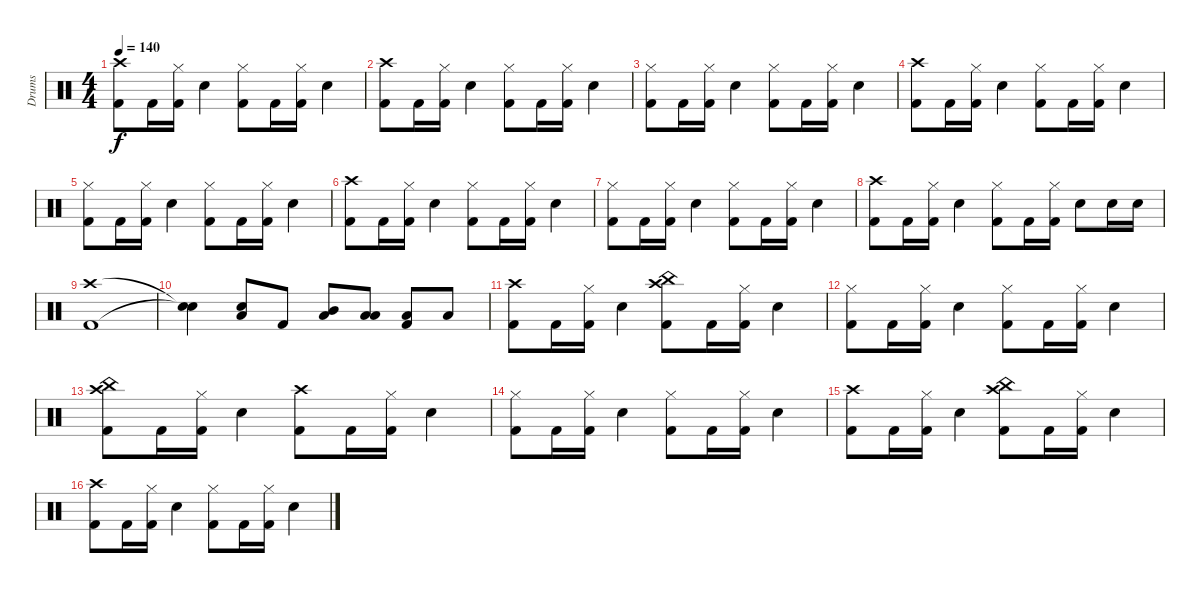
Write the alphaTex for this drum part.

\track ("Drums" "Drums") {instrument percussion}
\staff {score}
\articulation defaults
\ts (4 4)
\tempo 140
\clef neutral
\ks c
("Crash high (hit)" "Kick (hit) 2").8{dy f} "Kick (hit) 2".16 ("Hi-Hat (closed)" "Kick (hit) 2").16 "Electric Snare (hit)".4 ("Hi-Hat (closed)" "Kick (hit) 2").8 "Kick (hit) 2".16 ("Hi-Hat (closed)" "Kick (hit) 2").16 "Electric Snare (hit)".4 |
("Crash high (hit)" "Kick (hit) 2").8 "Kick (hit) 2".16 ("Hi-Hat (closed)" "Kick (hit) 2").16 "Electric Snare (hit)".4 ("Hi-Hat (closed)" "Kick (hit) 2").8 "Kick (hit) 2".16 ("Hi-Hat (closed)" "Kick (hit) 2").16 "Electric Snare (hit)".4 |
("Hi-Hat (closed)" "Kick (hit) 2").8 "Kick (hit) 2".16 ("Hi-Hat (closed)" "Kick (hit) 2").16 "Electric Snare (hit)".4 ("Hi-Hat (closed)" "Kick (hit) 2").8 "Kick (hit) 2".16 ("Hi-Hat (closed)" "Kick (hit) 2").16 "Electric Snare (hit)".4 |
("Crash high (hit)" "Kick (hit) 2").8 "Kick (hit) 2".16 ("Hi-Hat (closed)" "Kick (hit) 2").16 "Electric Snare (hit)".4 ("Hi-Hat (closed)" "Kick (hit) 2").8 "Kick (hit) 2".16 ("Hi-Hat (closed)" "Kick (hit) 2").16 "Electric Snare (hit)".4 |
("Hi-Hat (closed)" "Kick (hit) 2").8 "Kick (hit) 2".16 ("Hi-Hat (closed)" "Kick (hit) 2").16 "Electric Snare (hit)".4 ("Hi-Hat (closed)" "Kick (hit) 2").8 "Kick (hit) 2".16 ("Hi-Hat (closed)" "Kick (hit) 2").16 "Electric Snare (hit)".4 |
("Crash high (hit)" "Kick (hit) 2").8 "Kick (hit) 2".16 ("Hi-Hat (closed)" "Kick (hit) 2").16 "Electric Snare (hit)".4 ("Hi-Hat (closed)" "Kick (hit) 2").8 "Kick (hit) 2".16 ("Hi-Hat (closed)" "Kick (hit) 2").16 "Electric Snare (hit)".4 |
("Hi-Hat (closed)" "Kick (hit) 2").8 "Kick (hit) 2".16 ("Hi-Hat (closed)" "Kick (hit) 2").16 "Electric Snare (hit)".4 ("Hi-Hat (closed)" "Kick (hit) 2").8 "Kick (hit) 2".16 ("Hi-Hat (closed)" "Kick (hit) 2").16 "Electric Snare (hit)".4 |
("Crash high (hit)" "Kick (hit) 2").8 "Kick (hit) 2".16 ("Hi-Hat (closed)" "Kick (hit) 2").16 "Electric Snare (hit)".4 ("Hi-Hat (closed)" "Kick (hit) 2").8 "Kick (hit) 2".16 ("Hi-Hat (closed)" "Kick (hit) 2").16 "Electric Snare (hit)".8 "Electric Snare (hit)".16 "Electric Snare (hit)".16 |
("Crash high (hit)" "Kick (hit) 2").1 |
("Snare (hit)"{t} "Snare (hit)"{t}).4 ("Low Tom (hit)" "Electric Snare (hit)").8 "Kick (hit) 2".8 ("Mid Tom (hit)" "Low Tom (hit)").8 ("Low Tom (hit)" "Low Floor Tom (hit)").8 ("Low Floor Tom (hit)" "Kick (hit) 2").8 "Low Floor Tom (hit)".8 |
("Crash high (hit)" "Kick (hit) 2").8 "Kick (hit) 2".16 ("Hi-Hat (closed)" "Kick (hit) 2").16 "Electric Snare (hit)".4 ("China (hit)" "Crash high (hit)" "Kick (hit) 2").8 "Kick (hit) 2".16 ("Hi-Hat (closed)" "Kick (hit) 2").16 "Electric Snare (hit)".4 |
("Hi-Hat (closed)" "Kick (hit) 2").8 "Kick (hit) 2".16 ("Hi-Hat (closed)" "Kick (hit) 2").16 "Electric Snare (hit)".4 ("Hi-Hat (closed)" "Kick (hit) 2").8 "Kick (hit) 2".16 ("Hi-Hat (closed)" "Kick (hit) 2").16 "Electric Snare (hit)".4 |
("China (hit)" "Crash high (hit)" "Kick (hit) 2").8 "Kick (hit) 2".16 ("Hi-Hat (closed)" "Kick (hit) 2").16 "Electric Snare (hit)".4 ("Crash high (hit)" "Kick (hit) 2").8 "Kick (hit) 2".16 ("Hi-Hat (closed)" "Kick (hit) 2").16 "Electric Snare (hit)".4 |
("Hi-Hat (closed)" "Kick (hit) 2").8 "Kick (hit) 2".16 ("Hi-Hat (closed)" "Kick (hit) 2").16 "Electric Snare (hit)".4 ("Hi-Hat (closed)" "Kick (hit) 2").8 "Kick (hit) 2".16 ("Hi-Hat (closed)" "Kick (hit) 2").16 "Electric Snare (hit)".4 |
("Crash high (hit)" "Kick (hit) 2").8 "Kick (hit) 2".16 ("Hi-Hat (closed)" "Kick (hit) 2").16 "Electric Snare (hit)".4 ("China (hit)" "Crash high (hit)" "Kick (hit) 2").8 "Kick (hit) 2".16 ("Hi-Hat (closed)" "Kick (hit) 2").16 "Electric Snare (hit)".4 |
("Crash high (hit)" "Kick (hit) 2").8 "Kick (hit) 2".16 ("Hi-Hat (closed)" "Kick (hit) 2").16 "Electric Snare (hit)".4 ("Hi-Hat (closed)" "Kick (hit) 2").8 "Kick (hit) 2".16 ("Hi-Hat (closed)" "Kick (hit) 2").16 "Electric Snare (hit)".4
